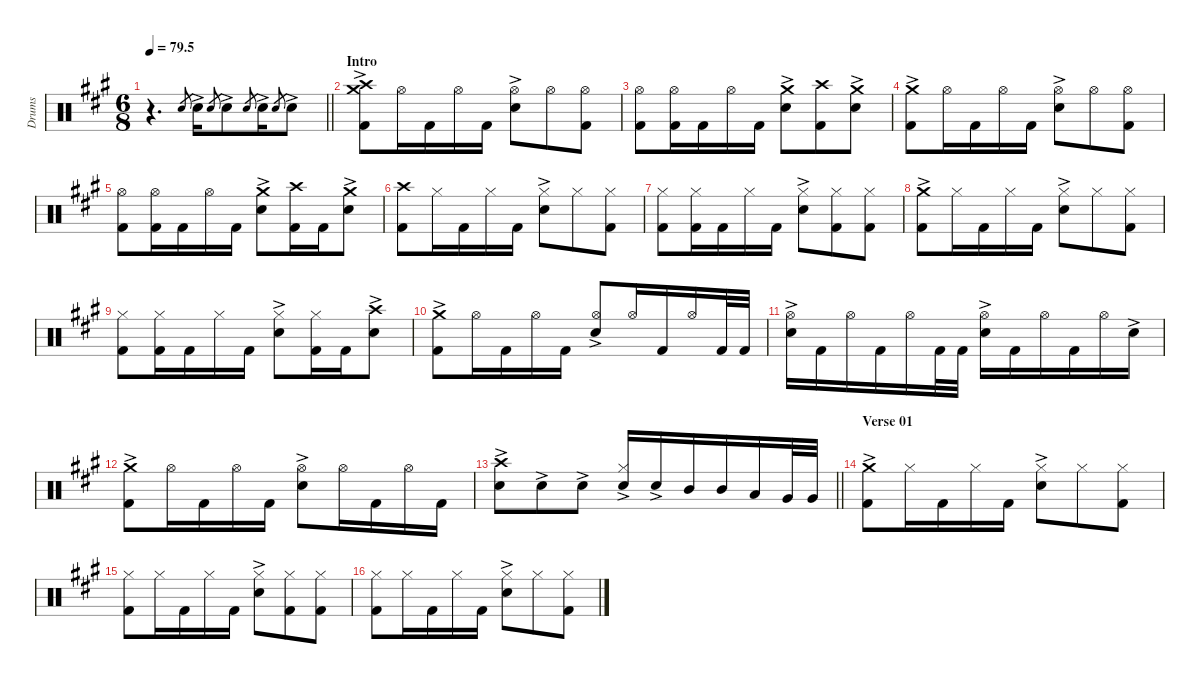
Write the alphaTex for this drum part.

\defaultSystemsLayout 4
\hideDynamics
\bracketExtendMode nobrackets
\otherSystemsTrackNameOrientation horizontal
\track ("Drumkit-show" "Drums") {mute instrument percussion}
\staff {score}
\articulation defaults
\ts (6 8)
\tempo
79.5
\accidentals auto
\clef neutral
\ottava regular
\simile none
\scale
0.474178
\barLineRight lightlight
\ks a
r.4{d dy mp beam Down} "Snare (hit) 2"{acc forcenatural}.8{gr beam Up} "Snare (hit) 2"{ac acc forcenatural}.16{dy f beam Down} "Snare (hit) 2"{acc forcenatural}.8{gr dy mp beam Up} "Snare (hit) 2"{ac acc forcenatural}.8{dy f beam Down} "Snare (hit) 2"{acc forcenatural}.8{gr dy mp beam Up} "Snare (hit) 2"{ac acc forcenatural}.16{dy f beam Down} "Snare (hit) 2"{acc forcenatural}.8{gr dy mp beam Up} "Snare (hit) 2"{ac acc forcenatural}.8{dy f beam Down} |
\section ("" "Intro")
\scale
0.262911 ("Crash medium (hit)"{ac acc forcenatural} "Crash high (hit)"{acc forcenatural} "Kick (hit) 2"{acc forcenatural}).8{beam Down} "Hi-Hat (open)"{acc forcenatural}.16{beam Down} "Kick (hit) 2"{acc forcenatural}.16{beam Down} "Hi-Hat (open)"{acc forcenatural}.16{beam Down} "Kick (hit) 2"{acc forcenatural}.16{beam Down} ("Hi-Hat (open)"{acc forcenatural} "Snare (hit) 2"{ac acc forcenatural}).8{beam Down} "Hi-Hat (open)"{acc forcenatural}.8{beam Down} ("Hi-Hat (open)"{acc forcenatural} "Kick (hit) 2"{acc forcenatural}).8{beam Down} |
\scale
0.262911 ("Hi-Hat (open)"{acc forcenatural} "Kick (hit) 2"{acc forcenatural}).8{beam Down} ("Hi-Hat (open)"{acc forcenatural} "Kick (hit) 2"{acc forcenatural}).16{beam Down} "Kick (hit) 2"{acc forcenatural}.16{beam Down} "Hi-Hat (open)"{acc forcenatural}.16{beam Down} "Kick (hit) 2"{acc forcenatural}.16{beam Down} ("Crash medium (hit)"{ac acc forcenatural} "Snare (hit) 2"{ac acc forcenatural}).8{beam Down} ("Crash high (hit)"{acc forcenatural} "Kick (hit) 2"{acc forcenatural}).8{beam Down} ("Crash medium (hit)"{ac acc forcenatural} "Snare (hit) 2"{ac acc forcenatural}).8{beam Down} |
\scale
0.333333 ("Crash medium (hit)"{ac acc forcenatural} "Kick (hit) 2"{acc forcenatural}).8{beam Down} "Hi-Hat (open)"{acc forcenatural}.16{beam Down} "Kick (hit) 2"{acc forcenatural}.16{beam Down} "Hi-Hat (open)"{acc forcenatural}.16{beam Down} "Kick (hit) 2"{acc forcenatural}.16{beam Down} ("Hi-Hat (open)"{acc forcenatural} "Snare (hit) 2"{ac acc forcenatural}).8{beam Down} "Hi-Hat (open)"{acc forcenatural}.8{beam Down} ("Hi-Hat (open)"{acc forcenatural} "Kick (hit) 2"{acc forcenatural}).8{beam Down} |
\scale
0.307582 ("Hi-Hat (open)"{acc forcenatural} "Kick (hit) 2"{acc forcenatural}).8{beam Down} ("Hi-Hat (open)"{acc forcenatural} "Kick (hit) 2"{acc forcenatural}).16{beam Down} "Kick (hit) 2"{acc forcenatural}.16{beam Down} "Hi-Hat (open)"{acc forcenatural}.16{beam Down} "Kick (hit) 2"{acc forcenatural}.16{beam Down} ("Crash medium (hit)"{ac acc forcenatural} "Snare (hit) 2"{ac acc forcenatural}).8{beam Down} ("Crash high (hit)"{acc forcenatural} "Kick (hit) 2"{acc forcenatural}).16{beam Down} "Kick (hit) 2"{acc forcenatural}.16{beam Down} ("Crash medium (hit)"{ac acc forcenatural} "Snare (hit) 2"{ac acc forcenatural}).8{beam Down} |
\scale
0.358865 ("Kick (hit) 2"{acc forcenatural} "Crash high (hit)"{acc forcenatural}).8{beam Down} "Hi-Hat (closed)"{acc forcenatural}.16{beam Down} "Kick (hit) 2"{acc forcenatural}.16{beam Down} "Hi-Hat (closed)"{acc forcenatural}.16{beam Down} "Kick (hit) 2"{acc forcenatural}.16{beam Down} ("Hi-Hat (closed)"{acc forcenatural} "Snare (hit) 2"{ac acc forcenatural}).8{beam Down} "Hi-Hat (closed)"{acc forcenatural}.8{beam Down} ("Hi-Hat (closed)"{acc forcenatural} "Kick (hit) 2"{acc forcenatural}).8{beam Down} |
\scale
0.333333 ("Hi-Hat (closed)"{acc forcenatural} "Kick (hit) 2"{acc forcenatural}).8{beam Down} ("Hi-Hat (closed)"{acc forcenatural} "Kick (hit) 2"{acc forcenatural}).16{beam Down} "Kick (hit) 2"{acc forcenatural}.16{beam Down} "Hi-Hat (closed)"{acc forcenatural}.16{beam Down} "Kick (hit) 2"{acc forcenatural}.16{beam Down} ("Hi-Hat (closed)"{acc forcenatural} "Snare (hit) 2"{ac acc forcenatural}).8{beam Down} ("Hi-Hat (closed)"{acc forcenatural} "Kick (hit) 2"{acc forcenatural}).8{beam Down} ("Hi-Hat (closed)"{acc forcenatural} "Kick (hit) 2"{acc forcenatural}).8{beam Down} |
\scale
0.333333 ("Crash medium (hit)"{ac acc forcenatural} "Kick (hit) 2"{acc forcenatural}).8{beam Down} "Hi-Hat (closed)"{acc forcenatural}.16{beam Down} "Kick (hit) 2"{acc forcenatural}.16{beam Down} "Hi-Hat (closed)"{acc forcenatural}.16{beam Down} "Kick (hit) 2"{acc forcenatural}.16{beam Down} ("Hi-Hat (closed)"{acc forcenatural} "Snare (hit) 2"{ac acc forcenatural}).8{beam Down} "Hi-Hat (closed)"{acc forcenatural}.8{beam Down} ("Hi-Hat (closed)"{acc forcenatural} "Kick (hit) 2"{acc forcenatural}).8{beam Down} |
\scale
0.333333 ("Hi-Hat (closed)"{acc forcenatural} "Kick (hit) 2"{acc forcenatural}).8{beam Down} ("Hi-Hat (closed)"{acc forcenatural} "Kick (hit) 2"{acc forcenatural}).16{beam Down} "Kick (hit) 2"{acc forcenatural}.16{beam Down} "Hi-Hat (closed)"{acc forcenatural}.16{beam Down} "Kick (hit) 2"{acc forcenatural}.16{beam Down} ("Hi-Hat (closed)"{acc forcenatural} "Snare (hit) 2"{ac acc forcenatural}).8{beam Down} ("Hi-Hat (closed)"{acc forcenatural} "Kick (hit) 2"{acc forcenatural}).16{beam Down} "Kick (hit) 2"{acc forcenatural}.16{beam Down} ("Snare (hit) 2"{ac acc forcenatural} "Crash high (hit)"{acc forcenatural}).8{beam Down} |
\scale
0.333333 ("Crash medium (hit)"{ac acc forcenatural} "Kick (hit) 2"{acc forcenatural}).8{beam Down} "Hi-Hat (open)"{acc forcenatural}.16{beam Down} "Kick (hit) 2"{acc forcenatural}.16{beam Down} "Hi-Hat (open)"{acc forcenatural}.16{beam Down} "Kick (hit) 2"{acc forcenatural}.16{beam Down} ("Hi-Hat (open)"{acc forcenatural} "Snare (hit) 2"{ac acc forcenatural}).8{beam Up} "Hi-Hat (open)"{acc forcenatural}.16{beam Up} "Kick (hit) 2"{acc forcenatural}.16{beam Up} "Hi-Hat (open)"{acc forcenatural}.16{beam Up} "Kick (hit) 2"{acc forcenatural}.32{beam Up} "Kick (hit) 2"{acc forcenatural}.32{beam Up} |
\scale
0.333333 ("Hi-Hat (open)"{acc forcenatural} "Snare (hit) 2"{ac acc forcenatural}).16{beam Down} "Kick (hit) 2"{acc forcenatural}.16{beam Down} "Hi-Hat (open)"{acc forcenatural}.16{beam Down} "Kick (hit) 2"{acc forcenatural}.16{beam Down} "Hi-Hat (open)"{acc forcenatural}.16{beam Down} "Kick (hit) 2"{acc forcenatural}.32{beam Down} "Kick (hit) 2"{acc forcenatural}.32{beam Down} ("Hi-Hat (open)"{acc forcenatural} "Snare (hit) 2"{ac acc forcenatural}).16{beam Down} "Kick (hit) 2"{acc forcenatural}.16{beam Down} "Hi-Hat (open)"{acc forcenatural}.16{beam Down} "Kick (hit) 2"{acc forcenatural}.16{beam Down} "Hi-Hat (open)"{acc forcenatural}.16{beam Down} "Snare (hit) 2"{ac acc forcenatural}.16{beam Down} |
\scale
0.333333 ("Crash medium (hit)"{ac acc forcenatural} "Kick (hit) 2"{acc forcenatural}).8{beam Down} "Hi-Hat (open)"{acc forcenatural}.16{beam Down} "Kick (hit) 2"{acc forcenatural}.16{beam Down} "Hi-Hat (open)"{acc forcenatural}.16{beam Down} "Kick (hit) 2"{acc forcenatural}.16{beam Down} ("Hi-Hat (open)"{acc forcenatural} "Snare (hit) 2"{ac acc forcenatural}).8{beam Down} "Hi-Hat (open)"{acc forcenatural}.16{beam Down} "Kick (hit) 2"{acc forcenatural}.16{beam Down} "Hi-Hat (open)"{acc forcenatural}.16{beam Down} "Kick (hit) 2"{acc forcenatural}.16{beam Down} |
\scale
0.333333
\barLineRight lightlight
("Snare (hit) 2"{ac acc forcenatural} "Crash high (hit)"{acc forcenatural}).8{beam Down} "Snare (hit) 2"{ac acc forcenatural}.8{beam Down} "Snare (hit) 2"{ac acc forcenatural}.8{beam Down} ("Snare (hit) 2"{ac acc forcenatural} "Hi-Hat (closed)"{acc forcenatural}).16{beam Up} "Snare (hit) 2"{ac acc forcenatural}.16{beam Up} "Mid Tom (hit)"{acc forcenatural}.16{beam Up} "Mid Tom (hit)"{acc forcenatural}.16{beam Up} "Low Tom (hit)"{acc forcenatural}.16{beam Up} "Very Low Tom (hit)"{acc forcenatural}.32{beam Up} "Very Low Tom (hit)"{acc forcenatural}.32{beam Up} |
\section ("" "Verse 01")
\scale
0.333333 ("Crash medium (hit)"{ac acc forcenatural} "Kick (hit) 2"{acc forcenatural}).8{beam Down} "Hi-Hat (closed)"{acc forcenatural}.16{beam Down} "Kick (hit) 2"{acc forcenatural}.16{beam Down} "Hi-Hat (closed)"{acc forcenatural}.16{beam Down} "Kick (hit) 2"{acc forcenatural}.16{beam Down} ("Hi-Hat (closed)"{acc forcenatural} "Snare (hit) 2"{ac acc forcenatural}).8{beam Down} "Hi-Hat (closed)"{acc forcenatural}.8{beam Down} ("Hi-Hat (closed)"{acc forcenatural} "Kick (hit) 2"{acc forcenatural}).8{beam Down} |
\scale
0.333333 ("Hi-Hat (closed)"{acc forcenatural} "Kick (hit) 2"{acc forcenatural}).8{beam Down} "Hi-Hat (closed)"{acc forcenatural}.16{beam Down} "Kick (hit) 2"{acc forcenatural}.16{beam Down} "Hi-Hat (closed)"{acc forcenatural}.16{beam Down} "Kick (hit) 2"{acc forcenatural}.16{beam Down} ("Hi-Hat (closed)"{acc forcenatural} "Snare (hit) 2"{ac acc forcenatural}).8{beam Down} ("Hi-Hat (closed)"{acc forcenatural} "Kick (hit) 2"{acc forcenatural}).8{beam Down} ("Hi-Hat (closed)"{acc forcenatural} "Kick (hit) 2"{acc forcenatural}).8{beam Down} |
\scale
0.333333 ("Kick (hit) 2"{acc forcenatural} "Hi-Hat (closed)"{acc forcenatural}).8{beam Down} "Hi-Hat (closed)"{acc forcenatural}.16{beam Down} "Kick (hit) 2"{acc forcenatural}.16{beam Down} "Hi-Hat (closed)"{acc forcenatural}.16{beam Down} "Kick (hit) 2"{acc forcenatural}.16{beam Down} ("Hi-Hat (closed)"{acc forcenatural} "Snare (hit) 2"{ac acc forcenatural}).8{beam Down} "Hi-Hat (closed)"{acc forcenatural}.8{beam Down} ("Hi-Hat (closed)"{acc forcenatural} "Kick (hit) 2"{acc forcenatural}).8{beam Down}
